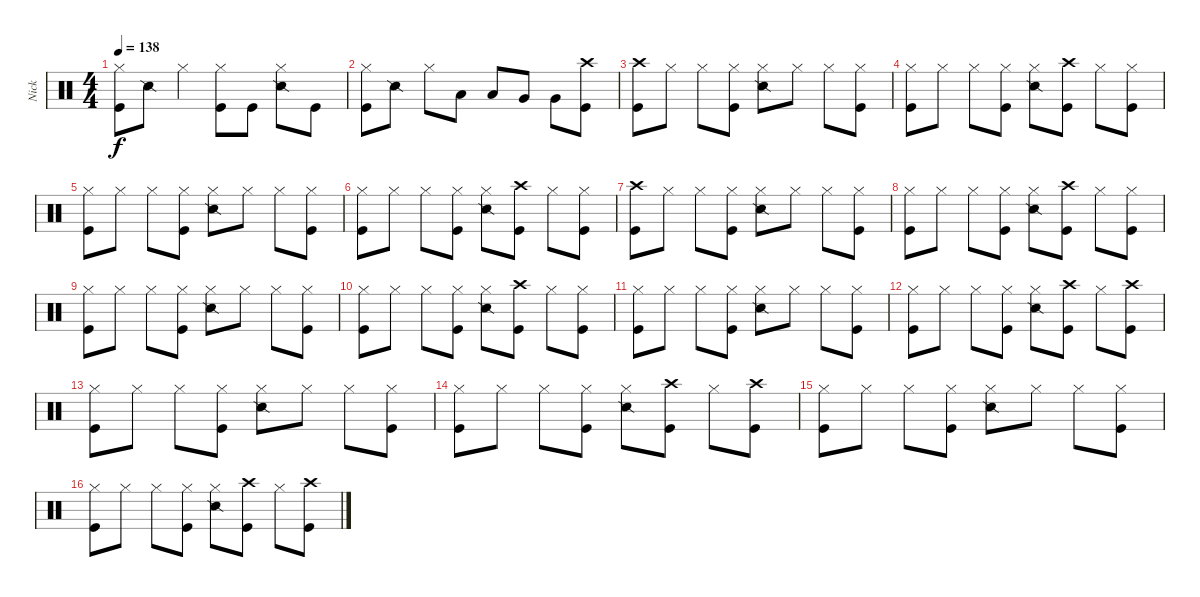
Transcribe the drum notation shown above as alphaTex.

\track ("Nick" "Nick") {instrument percussion}
\staff {score}
\articulation defaults
\ts (4 4)
\tempo 138
\clef neutral
\ks c
("Hi-Hat (closed)" "Kick (hit)").8{dy f} "Snare (side stick) 2".8 "Hi-Hat (closed)".4 ("Hi-Hat (closed)" "Kick (hit)").8 "Kick (hit)".8 ("Hi-Hat (closed)" "Snare (side stick) 2").8 "Kick (hit)".8 |
("Hi-Hat (closed)" "Kick (hit)").8 "Snare (side stick) 2".8 "Hi-Hat (closed)".8 "Low Tom (hit)".8 "Low Tom (hit)".8 "Very Low Tom (hit)".8 "Very Low Tom (hit)".8 ("Crash high (hit)" "Kick (hit)").8 |
("Crash high (hit)" "Kick (hit)").8 "Hi-Hat (closed)".8 "Hi-Hat (closed)".8 ("Hi-Hat (closed)" "Kick (hit)").8 ("Hi-Hat (closed)" "Snare (side stick) 2").8 "Hi-Hat (closed)".8 "Hi-Hat (closed)".8 ("Hi-Hat (closed)" "Kick (hit)").8 |
("Hi-Hat (closed)" "Kick (hit)").8 "Hi-Hat (closed)".8 "Hi-Hat (closed)".8 ("Hi-Hat (closed)" "Kick (hit)").8 ("Hi-Hat (closed)" "Snare (side stick) 2").8 ("Crash high (hit)" "Kick (hit)").8 "Hi-Hat (closed)".8 ("Hi-Hat (closed)" "Kick (hit)").8 |
("Hi-Hat (closed)" "Kick (hit)").8 "Hi-Hat (closed)".8 "Hi-Hat (closed)".8 ("Hi-Hat (closed)" "Kick (hit)").8 ("Hi-Hat (closed)" "Snare (side stick) 2").8 "Hi-Hat (closed)".8 "Hi-Hat (closed)".8 ("Hi-Hat (closed)" "Kick (hit)").8 |
("Hi-Hat (closed)" "Kick (hit)").8 "Hi-Hat (closed)".8 "Hi-Hat (closed)".8 ("Hi-Hat (closed)" "Kick (hit)").8 ("Hi-Hat (closed)" "Snare (side stick) 2").8 ("Crash high (hit)" "Kick (hit)").8 "Hi-Hat (closed)".8 ("Hi-Hat (closed)" "Kick (hit)").8 |
("Crash high (hit)" "Kick (hit)").8 "Hi-Hat (closed)".8 "Hi-Hat (closed)".8 ("Hi-Hat (closed)" "Kick (hit)").8 ("Hi-Hat (closed)" "Snare (side stick) 2").8 "Hi-Hat (closed)".8 "Hi-Hat (closed)".8 ("Hi-Hat (closed)" "Kick (hit)").8 |
("Hi-Hat (closed)" "Kick (hit)").8 "Hi-Hat (closed)".8 "Hi-Hat (closed)".8 ("Hi-Hat (closed)" "Kick (hit)").8 ("Hi-Hat (closed)" "Snare (side stick) 2").8 ("Crash high (hit)" "Kick (hit)").8 "Hi-Hat (closed)".8 ("Hi-Hat (closed)" "Kick (hit)").8 |
("Hi-Hat (closed)" "Kick (hit)").8 "Hi-Hat (closed)".8 "Hi-Hat (closed)".8 ("Hi-Hat (closed)" "Kick (hit)").8 ("Hi-Hat (closed)" "Snare (side stick) 2").8 "Hi-Hat (closed)".8 "Hi-Hat (closed)".8 ("Hi-Hat (closed)" "Kick (hit)").8 |
("Hi-Hat (closed)" "Kick (hit)").8 "Hi-Hat (closed)".8 "Hi-Hat (closed)".8 ("Hi-Hat (closed)" "Kick (hit)").8 ("Hi-Hat (closed)" "Snare (side stick) 2").8 ("Crash high (hit)" "Kick (hit)").8 "Hi-Hat (closed)".8 ("Hi-Hat (closed)" "Kick (hit)").8 |
("Hi-Hat (closed)" "Kick (hit)").8 "Hi-Hat (closed)".8 "Hi-Hat (closed)".8 ("Hi-Hat (closed)" "Kick (hit)").8 ("Hi-Hat (closed)" "Snare (side stick) 2").8 "Hi-Hat (closed)".8 "Hi-Hat (closed)".8 ("Hi-Hat (closed)" "Kick (hit)").8 |
("Hi-Hat (closed)" "Kick (hit)").8 "Hi-Hat (closed)".8 "Hi-Hat (closed)".8 ("Hi-Hat (closed)" "Kick (hit)").8 ("Hi-Hat (closed)" "Snare (side stick) 2").8 ("Crash high (hit)" "Kick (hit)").8 "Hi-Hat (closed)".8 ("Crash high (hit)" "Kick (hit)").8 |
("Hi-Hat (closed)" "Kick (hit)").8 "Hi-Hat (closed)".8 "Hi-Hat (closed)".8 ("Hi-Hat (closed)" "Kick (hit)").8 ("Hi-Hat (closed)" "Snare (side stick) 2").8 "Hi-Hat (closed)".8 "Hi-Hat (closed)".8 ("Hi-Hat (closed)" "Kick (hit)").8 |
("Hi-Hat (closed)" "Kick (hit)").8 "Hi-Hat (closed)".8 "Hi-Hat (closed)".8 ("Hi-Hat (closed)" "Kick (hit)").8 ("Hi-Hat (closed)" "Snare (side stick) 2").8 ("Crash high (hit)" "Kick (hit)").8 "Hi-Hat (closed)".8 ("Crash high (hit)" "Kick (hit)").8 |
("Hi-Hat (closed)" "Kick (hit)").8 "Hi-Hat (closed)".8 "Hi-Hat (closed)".8 ("Hi-Hat (closed)" "Kick (hit)").8 ("Hi-Hat (closed)" "Snare (side stick) 2").8 "Hi-Hat (closed)".8 "Hi-Hat (closed)".8 ("Hi-Hat (closed)" "Kick (hit)").8 |
("Hi-Hat (closed)" "Kick (hit)").8 "Hi-Hat (closed)".8 "Hi-Hat (closed)".8 ("Hi-Hat (closed)" "Kick (hit)").8 ("Hi-Hat (closed)" "Snare (side stick) 2").8 ("Crash high (hit)" "Kick (hit)").8 "Hi-Hat (closed)".8 ("Crash high (hit)" "Kick (hit)").8
